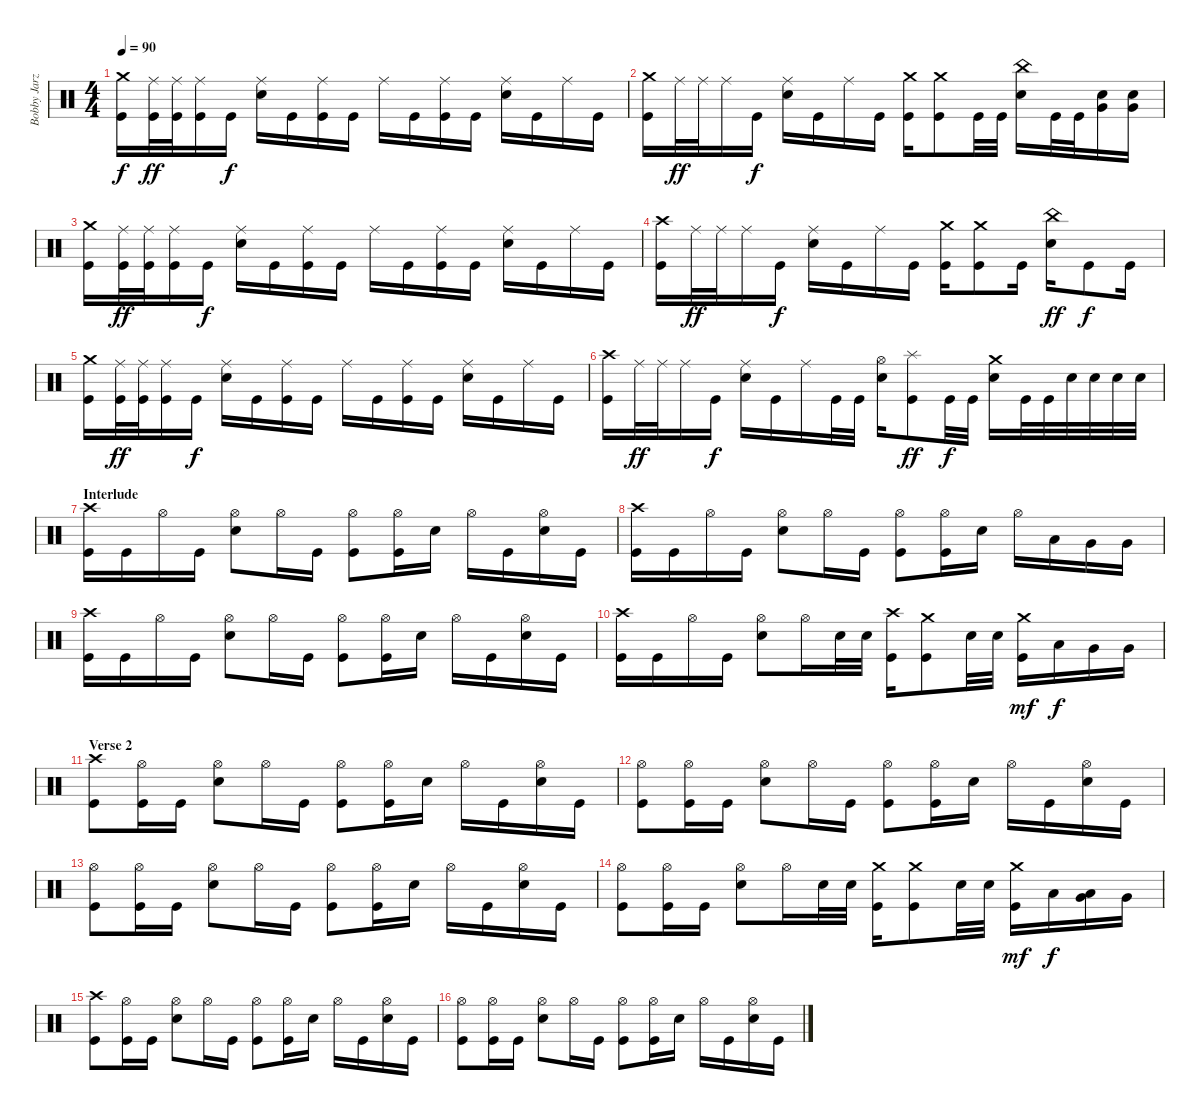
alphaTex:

\track ("Bobby Jarzombek" "Bobby Jarz") {instrument percussion}
\staff {score}
\articulation defaults
\ts (4 4)
\tempo 90
\clef neutral
\ks c
("Crash medium (hit)" "Kick (hit)").16{dy f} ("Ride (middle)" "Kick (hit)").32{dy ff} ("Ride (middle)" "Kick (hit)").32 ("Ride (middle)" "Kick (hit)").16 "Kick (hit)".16{dy f} ("Ride (middle)" "Electric Snare (hit)").16 "Kick (hit)".16 ("Ride (middle)" "Kick (hit)").16 "Kick (hit)".16 "Ride (middle)".16 "Kick (hit)".16 ("Ride (middle)" "Kick (hit)").16 "Kick (hit)".16 ("Ride (middle)" "Electric Snare (hit)").16 "Kick (hit)".16 "Ride (middle)".16 "Kick (hit)".16 |
("Crash medium (hit)" "Kick (hit)").16 "Ride (middle)".32{dy ff} "Ride (middle)".32 "Ride (middle)".16 "Kick (hit)".16{dy f} ("Ride (middle)" "Electric Snare (hit)").16 "Kick (hit)".16 "Ride (middle)".16 "Kick (hit)".16 ("Crash medium (hit)" "Kick (hit)").16 ("Crash medium (hit)" "Kick (hit)").8 "Kick (hit)".32 "Kick (hit)".32 ("China (hit)" "Electric Snare (hit)").16 "Kick (hit)".32 "Kick (hit)".32 ("Very Low Tom (hit)" "Electric Snare (hit)").16 ("Very Low Tom (hit)" "Electric Snare (hit)").16 |
("Crash medium (hit)" "Kick (hit)").16 ("Ride (middle)" "Kick (hit)").32{dy ff} ("Ride (middle)" "Kick (hit)").32 ("Ride (middle)" "Kick (hit)").16 "Kick (hit)".16{dy f} ("Ride (middle)" "Electric Snare (hit)").16 "Kick (hit)".16 ("Ride (middle)" "Kick (hit)").16 "Kick (hit)".16 "Ride (middle)".16 "Kick (hit)".16 ("Ride (middle)" "Kick (hit)").16 "Kick (hit)".16 ("Ride (middle)" "Electric Snare (hit)").16 "Kick (hit)".16 "Ride (middle)".16 "Kick (hit)".16 |
("Crash high (hit)" "Kick (hit)").16 "Ride (middle)".32{dy ff} "Ride (middle)".32 "Ride (middle)".16 "Kick (hit)".16{dy f} ("Ride (middle)" "Electric Snare (hit)").16 "Kick (hit)".16 "Ride (middle)".16 "Kick (hit)".16 ("Crash medium (hit)" "Kick (hit)").16 ("Crash medium (hit)" "Kick (hit)").8 "Kick (hit)".16 ("China (hit)" "Electric Snare (hit)").16{dy ff} "Kick (hit)".8{dy f} "Kick (hit)".16 |
("Crash medium (hit)" "Kick (hit)").16 ("Ride (middle)" "Kick (hit)").32{dy ff} ("Ride (middle)" "Kick (hit)").32 ("Ride (middle)" "Kick (hit)").16 "Kick (hit)".16{dy f} ("Ride (middle)" "Electric Snare (hit)").16 "Kick (hit)".16 ("Ride (middle)" "Kick (hit)").16 "Kick (hit)".16 "Ride (middle)".16 "Kick (hit)".16 ("Ride (middle)" "Kick (hit)").16 "Kick (hit)".16 ("Ride (middle)" "Electric Snare (hit)").16 "Kick (hit)".16 "Ride (middle)".16 "Kick (hit)".16 |
("Crash high (hit)" "Kick (hit)").16 "Ride (middle)".32{dy ff} "Ride (middle)".32 "Ride (middle)".16 "Kick (hit)".16{dy f} ("Ride (middle)" "Electric Snare (hit)").16 "Kick (hit)".16 "Ride (middle)".16 "Kick (hit)".32 "Kick (hit)".32 ("Hi-Hat (open)" "Electric Snare (hit)").16 ("Splash (hit)" "Kick (hit)").8{dy ff} "Kick (hit)".32{dy f} "Kick (hit)".32 ("Crash medium (hit)" "Electric Snare (hit)").16 "Kick (hit)".32 "Kick (hit)".32 "Electric Snare (hit)".32 "Electric Snare (hit)".32 "Electric Snare (hit)".32 "Electric Snare (hit)".32 |
\section ("" "Interlude")
("Crash high (hit)" "Kick (hit)").16 "Kick (hit)".16 "Hi-Hat (open)".16 "Kick (hit)".16 ("Hi-Hat (open)" "Electric Snare (hit)").8 "Hi-Hat (open)".16 "Kick (hit)".16 ("Hi-Hat (open)" "Kick (hit)").8 ("Hi-Hat (open)" "Kick (hit)").16 "Electric Snare (hit)".16 "Hi-Hat (open)".16 "Kick (hit)".16 ("Hi-Hat (open)" "Electric Snare (hit)").16 "Kick (hit)".16 |
("Crash high (hit)" "Kick (hit)").16 "Kick (hit)".16 "Hi-Hat (open)".16 "Kick (hit)".16 ("Hi-Hat (open)" "Electric Snare (hit)").8 "Hi-Hat (open)".16 "Kick (hit)".16 ("Hi-Hat (open)" "Kick (hit)").8 ("Hi-Hat (open)" "Kick (hit)").16 "Electric Snare (hit)".16 "Hi-Hat (open)".16 "Low Tom (hit)".16 "Very Low Tom (hit)".16 "Very Low Tom (hit)".16 |
("Crash high (hit)" "Kick (hit)").16 "Kick (hit)".16 "Hi-Hat (open)".16 "Kick (hit)".16 ("Hi-Hat (open)" "Electric Snare (hit)").8 "Hi-Hat (open)".16 "Kick (hit)".16 ("Hi-Hat (open)" "Kick (hit)").8 ("Hi-Hat (open)" "Kick (hit)").16 "Electric Snare (hit)".16 "Hi-Hat (open)".16 "Kick (hit)".16 ("Hi-Hat (open)" "Electric Snare (hit)").16 "Kick (hit)".16 |
("Crash high (hit)" "Kick (hit)").16 "Kick (hit)".16 "Hi-Hat (open)".16 "Kick (hit)".16 ("Hi-Hat (open)" "Electric Snare (hit)").8 "Hi-Hat (open)".16 "Electric Snare (hit)".32 "Electric Snare (hit)".32 ("Crash high (hit)" "Kick (hit)").16 ("Crash medium (hit)" "Kick (hit)").8 "Electric Snare (hit)".32 "Electric Snare (hit)".32 ("Crash medium (hit)" "Kick (hit)").16{dy mf} "Low Tom (hit)".16{dy f} "Very Low Tom (hit)".16 "Very Low Tom (hit)".16 |
\section ("" "Verse 2")
("Crash high (hit)" "Kick (hit)").8 ("Hi-Hat (open)" "Kick (hit)").16 "Kick (hit)".16 ("Hi-Hat (open)" "Electric Snare (hit)").8 "Hi-Hat (open)".16 "Kick (hit)".16 ("Hi-Hat (open)" "Kick (hit)").8 ("Hi-Hat (open)" "Kick (hit)").16 "Electric Snare (hit)".16 "Hi-Hat (open)".16 "Kick (hit)".16 ("Hi-Hat (open)" "Electric Snare (hit)").16 "Kick (hit)".16 |
("Hi-Hat (open)" "Kick (hit)").8 ("Hi-Hat (open)" "Kick (hit)").16 "Kick (hit)".16 ("Hi-Hat (open)" "Electric Snare (hit)").8 "Hi-Hat (open)".16 "Kick (hit)".16 ("Hi-Hat (open)" "Kick (hit)").8 ("Hi-Hat (open)" "Kick (hit)").16 "Electric Snare (hit)".16 "Hi-Hat (open)".16 "Kick (hit)".16 ("Hi-Hat (open)" "Electric Snare (hit)").16 "Kick (hit)".16 |
("Hi-Hat (open)" "Kick (hit)").8 ("Hi-Hat (open)" "Kick (hit)").16 "Kick (hit)".16 ("Hi-Hat (open)" "Electric Snare (hit)").8 "Hi-Hat (open)".16 "Kick (hit)".16 ("Hi-Hat (open)" "Kick (hit)").8 ("Hi-Hat (open)" "Kick (hit)").16 "Electric Snare (hit)".16 "Hi-Hat (open)".16 "Kick (hit)".16 ("Hi-Hat (open)" "Electric Snare (hit)").16 "Kick (hit)".16 |
("Hi-Hat (open)" "Kick (hit)").8 ("Hi-Hat (open)" "Kick (hit)").16 "Kick (hit)".16 ("Hi-Hat (open)" "Electric Snare (hit)").8 "Hi-Hat (open)".16 "Electric Snare (hit)".32 "Electric Snare (hit)".32 ("Crash medium (hit)" "Kick (hit)").16 ("Crash medium (hit)" "Kick (hit)").8 "Electric Snare (hit)".32 "Electric Snare (hit)".32 ("Crash medium (hit)" "Kick (hit)").16{dy mf} "Low Tom (hit)".16{dy f} ("Low Tom (hit)" "Very Low Tom (hit)").16 "Very Low Tom (hit)".16 |
("Crash high (hit)" "Kick (hit)").8 ("Hi-Hat (open)" "Kick (hit)").16 "Kick (hit)".16 ("Hi-Hat (open)" "Electric Snare (hit)").8 "Hi-Hat (open)".16 "Kick (hit)".16 ("Hi-Hat (open)" "Kick (hit)").8 ("Hi-Hat (open)" "Kick (hit)").16 "Electric Snare (hit)".16 "Hi-Hat (open)".16 "Kick (hit)".16 ("Hi-Hat (open)" "Electric Snare (hit)").16 "Kick (hit)".16 |
("Hi-Hat (open)" "Kick (hit)").8 ("Hi-Hat (open)" "Kick (hit)").16 "Kick (hit)".16 ("Hi-Hat (open)" "Electric Snare (hit)").8 "Hi-Hat (open)".16 "Kick (hit)".16 ("Hi-Hat (open)" "Kick (hit)").8 ("Hi-Hat (open)" "Kick (hit)").16 "Electric Snare (hit)".16 "Hi-Hat (open)".16 "Kick (hit)".16 ("Hi-Hat (open)" "Electric Snare (hit)").16 "Kick (hit)".16
